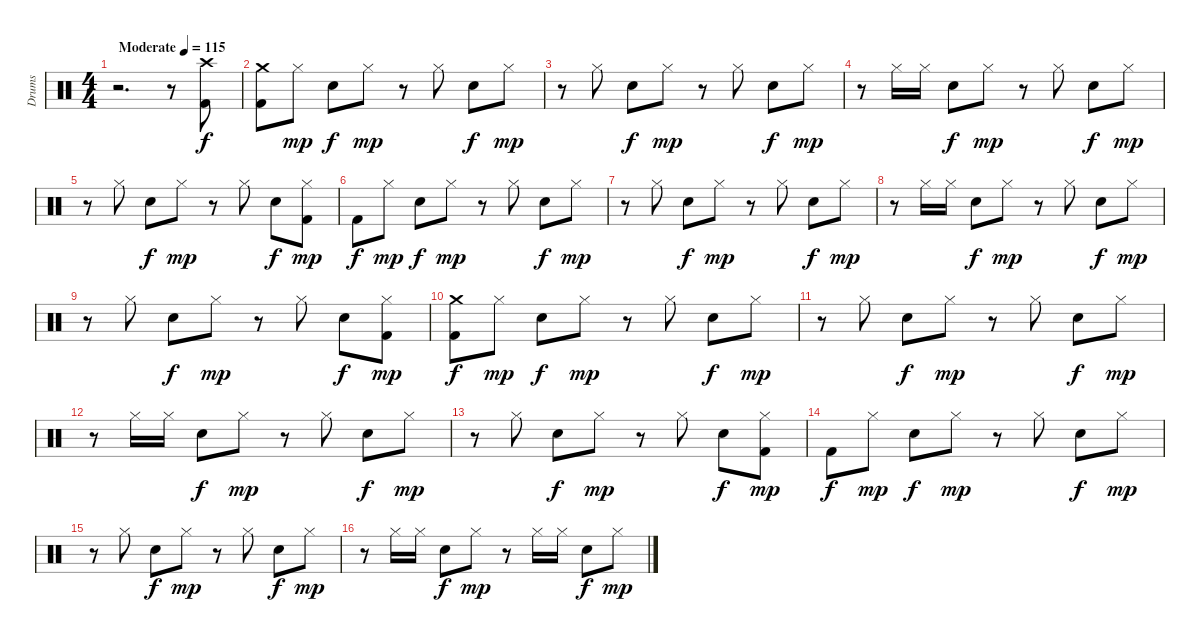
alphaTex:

\track ("Drums" "Drums") {instrument percussion}
\staff {score}
\articulation defaults
\ts (4 4)
\tempo (115 "Moderate")
\clef neutral
\ks c
r.2{d dy f} r.8 ("Crash high (hit)" "Kick (hit) 2").8 |
("Crash medium (hit)" "Kick (hit) 2").8 "Hi-Hat (closed)".8{dy mp} "Snare (hit) 2".8{dy f} "Hi-Hat (closed)".8{dy mp} r.8 "Hi-Hat (closed)".8 "Snare (hit) 2".8{dy f} "Hi-Hat (closed)".8{dy mp} |
r.8 "Hi-Hat (closed)".8 "Snare (hit) 2".8{dy f} "Hi-Hat (closed)".8{dy mp} r.8 "Hi-Hat (closed)".8 "Snare (hit) 2".8{dy f} "Hi-Hat (closed)".8{dy mp} |
r.8 "Hi-Hat (closed)".16 "Hi-Hat (closed)".16 "Snare (hit) 2".8{dy f} "Hi-Hat (closed)".8{dy mp} r.8 "Hi-Hat (closed)".8 "Snare (hit) 2".8{dy f} "Hi-Hat (closed)".8{dy mp} |
r.8 "Hi-Hat (closed)".8 "Snare (hit) 2".8{dy f} "Hi-Hat (closed)".8{dy mp} r.8 "Hi-Hat (closed)".8 "Snare (hit) 2".8{dy f} ("Hi-Hat (closed)" "Kick (hit) 2").8{dy mp} |
"Kick (hit) 2".8{dy f} "Hi-Hat (closed)".8{dy mp} "Snare (hit) 2".8{dy f} "Hi-Hat (closed)".8{dy mp} r.8 "Hi-Hat (closed)".8 "Snare (hit) 2".8{dy f} "Hi-Hat (closed)".8{dy mp} |
r.8 "Hi-Hat (closed)".8 "Snare (hit) 2".8{dy f} "Hi-Hat (closed)".8{dy mp} r.8 "Hi-Hat (closed)".8 "Snare (hit) 2".8{dy f} "Hi-Hat (closed)".8{dy mp} |
r.8 "Hi-Hat (closed)".16 "Hi-Hat (closed)".16 "Snare (hit) 2".8{dy f} "Hi-Hat (closed)".8{dy mp} r.8 "Hi-Hat (closed)".8 "Snare (hit) 2".8{dy f} "Hi-Hat (closed)".8{dy mp} |
r.8 "Hi-Hat (closed)".8 "Snare (hit) 2".8{dy f} "Hi-Hat (closed)".8{dy mp} r.8 "Hi-Hat (closed)".8 "Snare (hit) 2".8{dy f} ("Hi-Hat (closed)" "Kick (hit) 2").8{dy mp} |
("Crash medium (hit)" "Kick (hit) 2").8{dy f} "Hi-Hat (closed)".8{dy mp} "Snare (hit) 2".8{dy f} "Hi-Hat (closed)".8{dy mp} r.8 "Hi-Hat (closed)".8 "Snare (hit) 2".8{dy f} "Hi-Hat (closed)".8{dy mp} |
r.8 "Hi-Hat (closed)".8 "Snare (hit) 2".8{dy f} "Hi-Hat (closed)".8{dy mp} r.8 "Hi-Hat (closed)".8 "Snare (hit) 2".8{dy f} "Hi-Hat (closed)".8{dy mp} |
r.8 "Hi-Hat (closed)".16 "Hi-Hat (closed)".16 "Snare (hit) 2".8{dy f} "Hi-Hat (closed)".8{dy mp} r.8 "Hi-Hat (closed)".8 "Snare (hit) 2".8{dy f} "Hi-Hat (closed)".8{dy mp} |
r.8 "Hi-Hat (closed)".8 "Snare (hit) 2".8{dy f} "Hi-Hat (closed)".8{dy mp} r.8 "Hi-Hat (closed)".8 "Snare (hit) 2".8{dy f} ("Hi-Hat (closed)" "Kick (hit) 2").8{dy mp} |
"Kick (hit) 2".8{dy f} "Hi-Hat (closed)".8{dy mp} "Snare (hit) 2".8{dy f} "Hi-Hat (closed)".8{dy mp} r.8 "Hi-Hat (closed)".8 "Snare (hit) 2".8{dy f} "Hi-Hat (closed)".8{dy mp} |
r.8 "Hi-Hat (closed)".8 "Snare (hit) 2".8{dy f} "Hi-Hat (closed)".8{dy mp} r.8 "Hi-Hat (closed)".8 "Snare (hit) 2".8{dy f} "Hi-Hat (closed)".8{dy mp} |
r.8 "Hi-Hat (closed)".16 "Hi-Hat (closed)".16 "Snare (hit) 2".8{dy f} "Hi-Hat (closed)".8{dy mp} r.8 "Hi-Hat (closed)".16 "Hi-Hat (closed)".16 "Snare (hit) 2".8{dy f} "Hi-Hat (closed)".8{dy mp}
